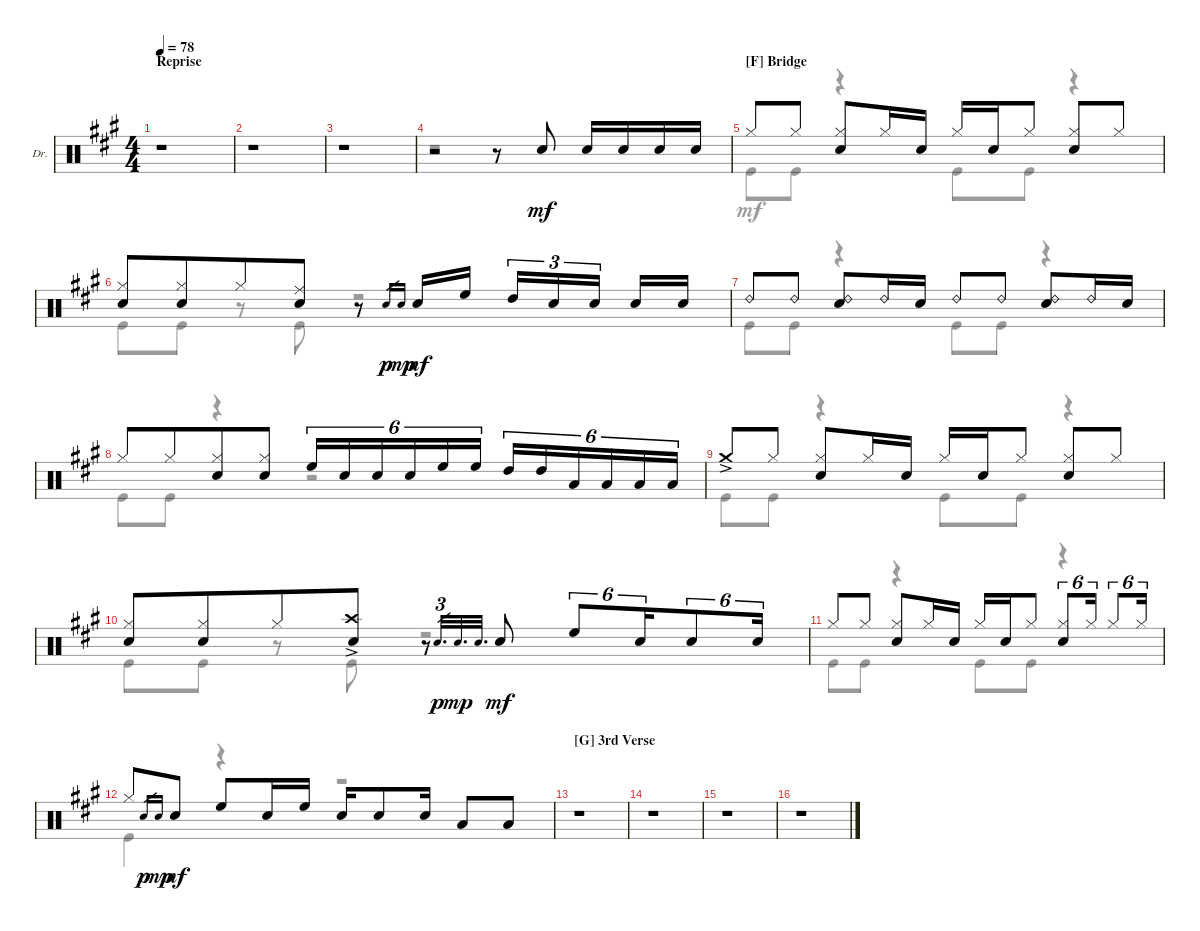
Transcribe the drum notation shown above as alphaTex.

\defaultSystemsLayout 4
\bracketExtendMode groupsimilarinstruments
\firstSystemTrackNameOrientation horizontal
\otherSystemsTrackNameOrientation horizontal
\track ("Drums" "Dr.") {instrument percussion}
\staff {score}
\articulation defaults
\voice
\ts (4 4)
\section ("" "Reprise")
\tempo 78
\clef neutral
\ks a
r.1{dy f} |
r.1 |
r.1 |
r.2 r.8 "Snare (hit) 2".8{dy mf} "Snare (hit) 2".16 "Snare (hit) 2".16 "Snare (hit) 2".16 "Snare (hit) 2".16 |
\section ("F" "Bridge")
"Hi-Hat (closed)".8 "Hi-Hat (closed)".8 ("Hi-Hat (closed)" "Snare (hit) 2").8 "Hi-Hat (closed)".16 "Snare (hit) 2".16 "Hi-Hat (closed)".16 "Snare (hit) 2".16 "Hi-Hat (closed)".8 ("Hi-Hat (closed)" "Snare (hit) 2").8 "Hi-Hat (closed)".8 |
("Snare (hit) 2" "Hi-Hat (closed)").8 ("Snare (hit) 2" "Hi-Hat (closed)").8{beam merge} "Hi-Hat (closed)".8 ("Snare (hit) 2" "Ride (middle)").8 r.8 "Snare (hit) 2".16{gr dy p} "Snare (hit) 2".16{gr dy mp} "Snare (hit) 2".16{dy mf} "High Floor Tom (hit)".16 "High Tom (hit)".16{tu (3 2)} "Snare (hit) 2".16{tu (3 2)} "Snare (hit) 2".16{tu (3 2) beam splitsecondary} "Snare (hit) 2".16 "Snare (hit) 2".16 |
"Ride (bell) 2".8 "Ride (bell) 2".8 ("Ride (bell) 2" "Snare (hit) 2").8 "Ride (bell) 2".16 "Snare (hit) 2".16 "Ride (bell) 2".8 "Ride (bell) 2".8 ("Ride (bell) 2" "Snare (hit) 2").8 "Ride (bell) 2".16 "Snare (hit) 2".16 |
"Hi-Hat (closed)".8 "Hi-Hat (closed)".8{beam merge} ("Hi-Hat (closed)" "Snare (hit) 2").8 ("Hi-Hat (closed)" "Snare (hit) 2").8 "High Floor Tom (hit)".16{tu (6 4)} "Snare (hit) 2".16{tu (6 4)} "Snare (hit) 2".16{tu (6 4)} "Snare (hit) 2".16{tu (6 4)} "High Floor Tom (hit)".16{tu (6 4)} "High Floor Tom (hit)".16{tu (6 4)} "High Tom (hit)".16{tu (6 4)} "High Tom (hit)".16{tu (6 4)} "Low Tom (hit)".16{tu (6 4)} "Low Tom (hit)".16{tu (6 4)} "Low Tom (hit)".16{tu (6 4)} "Low Tom (hit)".16{tu (6 4)} |
"Crash medium (hit)"{ac}.8 "Hi-Hat (closed)".8 ("Hi-Hat (closed)" "Snare (hit) 2").8 "Hi-Hat (closed)".16 "Snare (hit) 2".16 "Hi-Hat (closed)".16 "Snare (hit) 2".16 "Hi-Hat (closed)".8 ("Hi-Hat (closed)" "Snare (hit) 2").8 "Hi-Hat (closed)".8 |
("Snare (hit) 2" "Hi-Hat (closed)").8 ("Snare (hit) 2" "Hi-Hat (closed)").8{beam merge} "Hi-Hat (closed)".8 ("Snare (hit) 2" "Crash high (hit)"{ac}).8 r.8 "Snare (hit) 2".32{d tu (3 2) gr dy p} "Snare (hit) 2".32{d tu (3 2) gr dy mp} "Snare (hit) 2".32{d tu (3 2) gr} "Snare (hit) 2".8{dy mf} "High Floor Tom (hit)".8{tu (6 4)} "Snare (hit) 2".16{tu (6 4) beam merge} "Snare (hit) 2".8{tu (6 4)} "Snare (hit) 2".16{tu (6 4)} |
"Hi-Hat (closed)".8 "Hi-Hat (closed)".8 ("Hi-Hat (closed)" "Snare (hit) 2").8 "Hi-Hat (closed)".16 "Snare (hit) 2".16 "Hi-Hat (closed)".16 "Snare (hit) 2".16 "Hi-Hat (closed)".8 ("Hi-Hat (closed)" "Snare (hit) 2").8{tu (6 4)} "Hi-Hat (closed)".16{tu (6 4)} "Hi-Hat (closed)".8{tu (6 4)} "Hi-Hat (closed)".16{tu (6 4)} |
"Hi-Hat (closed)".8 "Snare (hit) 2".16{gr dy p} "Snare (hit) 2".16{gr dy mp} "Snare (hit) 2".8{dy mf} "High Floor Tom (hit)".8 "Snare (hit) 2".16 "High Floor Tom (hit)".16 "Snare (hit) 2".16 "Snare (hit) 2".8 "Snare (hit) 2".16 "Low Tom (hit)".8 "Low Tom (hit)".8 |
\section ("G" "3rd Verse")
r.1 |
r.1 |
r.1 |
r.1
\voice
\clef neutral
\ottava regular
\simile none
\ks a
|
|
|
r.1 |
"Kick (hit)".8 "Kick (hit)".8 r.4 "Kick (hit)".8 "Kick (hit)".8 r.4 |
"Kick (hit)".8 "Kick (hit)".8 r.8 "Kick (hit)".8 r.2 |
"Kick (hit)".8 "Kick (hit)".8 r.4 "Kick (hit)".8 "Kick (hit)".8 r.4 |
"Kick (hit)".8 "Kick (hit)".8 r.4 r.2 |
"Kick (hit)".8 "Kick (hit)".8 r.4 "Kick (hit)".8 "Kick (hit)".8 r.4 |
"Kick (hit)".8 "Kick (hit)".8 r.8 "Kick (hit)".8 r.2 |
"Kick (hit)".8 "Kick (hit)".8 r.4 "Kick (hit)".8 "Kick (hit)".8 r.4 |
"Kick (hit)".4 r.4 r.2 |
|
|
|
